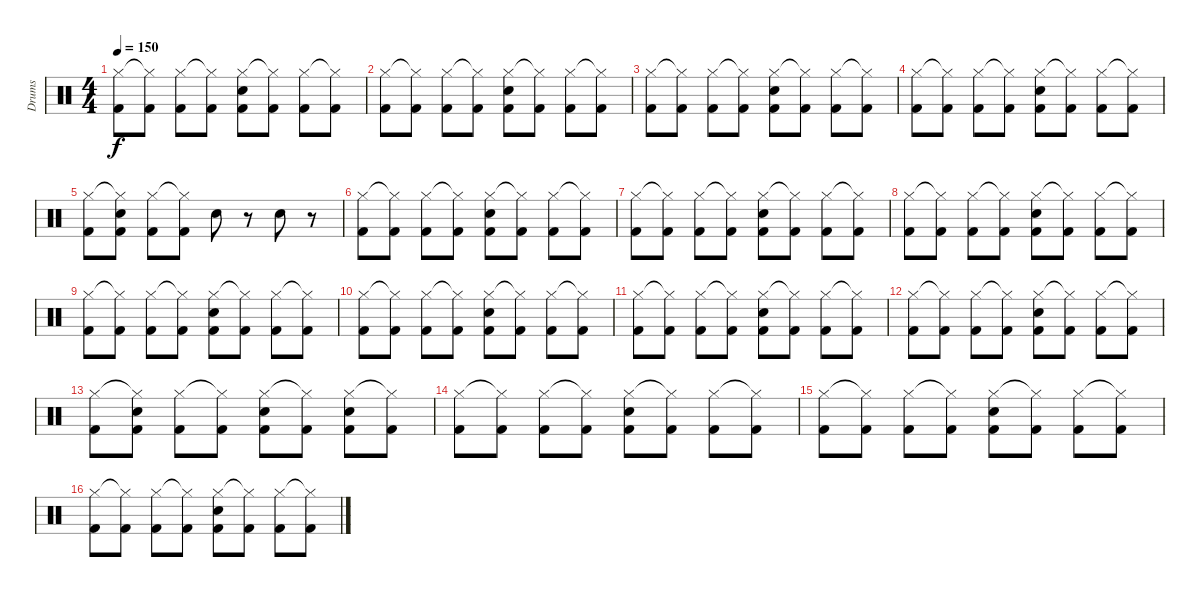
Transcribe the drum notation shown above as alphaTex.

\track ("Drums" "Drums") {instrument percussion}
\staff {score}
\articulation defaults
\ts (4 4)
\tempo 150
\clef neutral
\ks c
("Hi-Hat (closed)" "Kick (hit) 2").8{dy f} ("Hi-Hat (closed)"{t} "Kick (hit) 2").8 ("Hi-Hat (closed)" "Kick (hit) 2").8 ("Hi-Hat (closed)"{t} "Kick (hit) 2").8 ("Hi-Hat (closed)" "Kick (hit) 2" "Snare (hit) 2").8 ("Hi-Hat (closed)"{t} "Kick (hit) 2").8 ("Hi-Hat (closed)" "Kick (hit) 2").8 ("Hi-Hat (closed)"{t} "Kick (hit) 2").8 |
("Hi-Hat (closed)" "Kick (hit) 2").8 ("Hi-Hat (closed)"{t} "Kick (hit) 2").8 ("Hi-Hat (closed)" "Kick (hit) 2").8 ("Hi-Hat (closed)"{t} "Kick (hit) 2").8 ("Hi-Hat (closed)" "Kick (hit) 2" "Snare (hit) 2").8 ("Hi-Hat (closed)"{t} "Kick (hit) 2").8 ("Hi-Hat (closed)" "Kick (hit) 2").8 ("Hi-Hat (closed)"{t} "Kick (hit) 2").8 |
("Hi-Hat (closed)" "Kick (hit) 2").8 ("Hi-Hat (closed)"{t} "Kick (hit) 2").8 ("Hi-Hat (closed)" "Kick (hit) 2").8 ("Hi-Hat (closed)"{t} "Kick (hit) 2").8 ("Hi-Hat (closed)" "Kick (hit) 2" "Snare (hit) 2").8 ("Hi-Hat (closed)"{t} "Kick (hit) 2").8 ("Hi-Hat (closed)" "Kick (hit) 2").8 ("Hi-Hat (closed)"{t} "Kick (hit) 2").8 |
("Hi-Hat (closed)" "Kick (hit) 2").8 ("Hi-Hat (closed)"{t} "Kick (hit) 2").8 ("Hi-Hat (closed)" "Kick (hit) 2").8 ("Hi-Hat (closed)"{t} "Kick (hit) 2").8 ("Hi-Hat (closed)" "Kick (hit) 2" "Snare (hit) 2").8 ("Hi-Hat (closed)"{t} "Kick (hit) 2").8 ("Hi-Hat (closed)" "Kick (hit) 2").8 ("Hi-Hat (closed)"{t} "Kick (hit) 2").8 |
("Hi-Hat (closed)" "Kick (hit) 2").8 ("Hi-Hat (closed)"{t} "Kick (hit) 2" "Snare (hit) 2").8 ("Hi-Hat (closed)" "Kick (hit) 2").8 ("Hi-Hat (closed)"{t} "Kick (hit) 2").8 "Snare (hit) 2".8 r.8 "Snare (hit) 2".8 r.8 |
("Hi-Hat (closed)" "Kick (hit) 2").8 ("Hi-Hat (closed)"{t} "Kick (hit) 2").8 ("Hi-Hat (closed)" "Kick (hit) 2").8 ("Hi-Hat (closed)"{t} "Kick (hit) 2").8 ("Hi-Hat (closed)" "Kick (hit) 2" "Snare (hit) 2").8 ("Hi-Hat (closed)"{t} "Kick (hit) 2").8 ("Hi-Hat (closed)" "Kick (hit) 2").8 ("Hi-Hat (closed)"{t} "Kick (hit) 2").8 |
("Hi-Hat (closed)" "Kick (hit) 2").8 ("Hi-Hat (closed)"{t} "Kick (hit) 2").8 ("Hi-Hat (closed)" "Kick (hit) 2").8 ("Hi-Hat (closed)"{t} "Kick (hit) 2").8 ("Hi-Hat (closed)" "Kick (hit) 2" "Snare (hit) 2").8 ("Hi-Hat (closed)"{t} "Kick (hit) 2").8 ("Hi-Hat (closed)" "Kick (hit) 2").8 ("Hi-Hat (closed)"{t} "Kick (hit) 2").8 |
("Hi-Hat (closed)" "Kick (hit) 2").8 ("Hi-Hat (closed)"{t} "Kick (hit) 2").8 ("Hi-Hat (closed)" "Kick (hit) 2").8 ("Hi-Hat (closed)"{t} "Kick (hit) 2").8 ("Hi-Hat (closed)" "Kick (hit) 2" "Snare (hit) 2").8 ("Hi-Hat (closed)"{t} "Kick (hit) 2").8 ("Hi-Hat (closed)" "Kick (hit) 2").8 ("Hi-Hat (closed)"{t} "Kick (hit) 2").8 |
("Hi-Hat (closed)" "Kick (hit) 2").8 ("Hi-Hat (closed)"{t} "Kick (hit) 2").8 ("Hi-Hat (closed)" "Kick (hit) 2").8 ("Hi-Hat (closed)"{t} "Kick (hit) 2").8 ("Hi-Hat (closed)" "Kick (hit) 2" "Snare (hit) 2").8 ("Hi-Hat (closed)"{t} "Kick (hit) 2").8 ("Hi-Hat (closed)" "Kick (hit) 2").8 ("Hi-Hat (closed)"{t} "Kick (hit) 2").8 |
("Hi-Hat (closed)" "Kick (hit) 2").8 ("Hi-Hat (closed)"{t} "Kick (hit) 2").8 ("Hi-Hat (closed)" "Kick (hit) 2").8 ("Hi-Hat (closed)"{t} "Kick (hit) 2").8 ("Hi-Hat (closed)" "Kick (hit) 2" "Snare (hit) 2").8 ("Hi-Hat (closed)"{t} "Kick (hit) 2").8 ("Hi-Hat (closed)" "Kick (hit) 2").8 ("Hi-Hat (closed)"{t} "Kick (hit) 2").8 |
("Hi-Hat (closed)" "Kick (hit) 2").8 ("Hi-Hat (closed)"{t} "Kick (hit) 2").8 ("Hi-Hat (closed)" "Kick (hit) 2").8 ("Hi-Hat (closed)"{t} "Kick (hit) 2").8 ("Hi-Hat (closed)" "Kick (hit) 2" "Snare (hit) 2").8 ("Hi-Hat (closed)"{t} "Kick (hit) 2").8 ("Hi-Hat (closed)" "Kick (hit) 2").8 ("Hi-Hat (closed)"{t} "Kick (hit) 2").8 |
("Hi-Hat (closed)" "Kick (hit) 2").8 ("Hi-Hat (closed)"{t} "Kick (hit) 2").8 ("Hi-Hat (closed)" "Kick (hit) 2").8 ("Hi-Hat (closed)"{t} "Kick (hit) 2").8 ("Hi-Hat (closed)" "Kick (hit) 2" "Snare (hit) 2").8 ("Hi-Hat (closed)"{t} "Kick (hit) 2").8 ("Hi-Hat (closed)" "Kick (hit) 2").8 ("Hi-Hat (closed)"{t} "Kick (hit) 2").8 |
("Hi-Hat (closed)" "Kick (hit) 2").8 ("Hi-Hat (closed)"{t} "Kick (hit) 2" "Snare (hit) 2").8 ("Hi-Hat (closed)" "Kick (hit) 2").8 ("Hi-Hat (closed)"{t} "Kick (hit) 2").8 ("Hi-Hat (closed)" "Kick (hit) 2" "Snare (hit) 2").8 ("Hi-Hat (closed)"{t} "Kick (hit) 2").8 ("Hi-Hat (closed)" "Kick (hit) 2" "Snare (hit) 2").8 ("Hi-Hat (closed)"{t} "Kick (hit) 2").8 |
("Hi-Hat (closed)" "Kick (hit) 2").8 ("Hi-Hat (closed)"{t} "Kick (hit) 2").8 ("Hi-Hat (closed)" "Kick (hit) 2").8 ("Hi-Hat (closed)"{t} "Kick (hit) 2").8 ("Hi-Hat (closed)" "Kick (hit) 2" "Snare (hit) 2").8 ("Hi-Hat (closed)"{t} "Kick (hit) 2").8 ("Hi-Hat (closed)" "Kick (hit) 2").8 ("Hi-Hat (closed)"{t} "Kick (hit) 2").8 |
("Hi-Hat (closed)" "Kick (hit) 2").8 ("Hi-Hat (closed)"{t} "Kick (hit) 2").8 ("Hi-Hat (closed)" "Kick (hit) 2").8 ("Hi-Hat (closed)"{t} "Kick (hit) 2").8 ("Hi-Hat (closed)" "Kick (hit) 2" "Snare (hit) 2").8 ("Hi-Hat (closed)"{t} "Kick (hit) 2").8 ("Hi-Hat (closed)" "Kick (hit) 2").8 ("Hi-Hat (closed)"{t} "Kick (hit) 2").8 |
("Hi-Hat (closed)" "Kick (hit) 2").8 ("Hi-Hat (closed)"{t} "Kick (hit) 2").8 ("Hi-Hat (closed)" "Kick (hit) 2").8 ("Hi-Hat (closed)"{t} "Kick (hit) 2").8 ("Hi-Hat (closed)" "Kick (hit) 2" "Snare (hit) 2").8 ("Hi-Hat (closed)"{t} "Kick (hit) 2").8 ("Hi-Hat (closed)" "Kick (hit) 2").8 ("Hi-Hat (closed)"{t} "Kick (hit) 2").8
